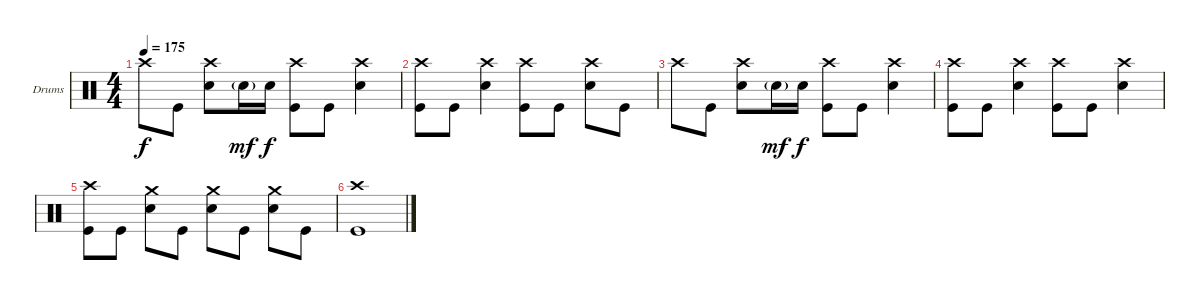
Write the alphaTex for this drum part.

\bracketExtendMode groupsimilarinstruments
\firstSystemTrackNameOrientation horizontal
\otherSystemsTrackNameOrientation horizontal
\track ("Drumkit" "Drums") {instrument percussion}
\staff {score}
\articulation defaults
\ts (4 4)
\tempo 175
\clef neutral
\ks c "Crash high (hit)".8{dy f} "Kick (hit)".8
("Crash high (hit)" "Snare (hit) 2").8 "Snare (hit) 2"{g}.16{dy mf} "Snare (hit) 2".16{dy f} ("Crash high (hit)" "Kick (hit)").8 "Kick (hit)".8 ("Crash high (hit)" "Snare (hit) 2").4 |
("Crash high (hit)" "Kick (hit)").8 "Kick (hit)".8 ("Crash high (hit)" "Snare (hit) 2").4 ("Crash high (hit)" "Kick (hit)").8 "Kick (hit)".8 ("Crash high (hit)" "Snare (hit) 2").8 "Kick (hit)".8 |
"Crash high (hit)".8 "Kick (hit)".8 ("Crash high (hit)" "Snare (hit) 2").8 "Snare (hit) 2"{g}.16{dy mf} "Snare (hit) 2".16{dy f} ("Crash high (hit)" "Kick (hit)").8 "Kick (hit)".8 ("Crash high (hit)" "Snare (hit) 2").4 |
("Crash high (hit)" "Kick (hit)").8 "Kick (hit)".8 ("Crash high (hit)" "Snare (hit) 2").4 ("Crash high (hit)" "Kick (hit)").8 "Kick (hit)".8 ("Crash high (hit)" "Snare (hit) 2").4 |
("Crash high (hit)" "Kick (hit)").8 "Kick (hit)".8 ("Crash medium (hit)" "Snare (hit) 2").8 "Kick (hit)".8 ("Crash medium (hit)" "Snare (hit) 2").8 "Kick (hit)".8 ("Crash medium (hit)" "Snare (hit) 2").8 "Kick (hit)".8 |
("Crash high (hit)" "Kick (hit)").1
